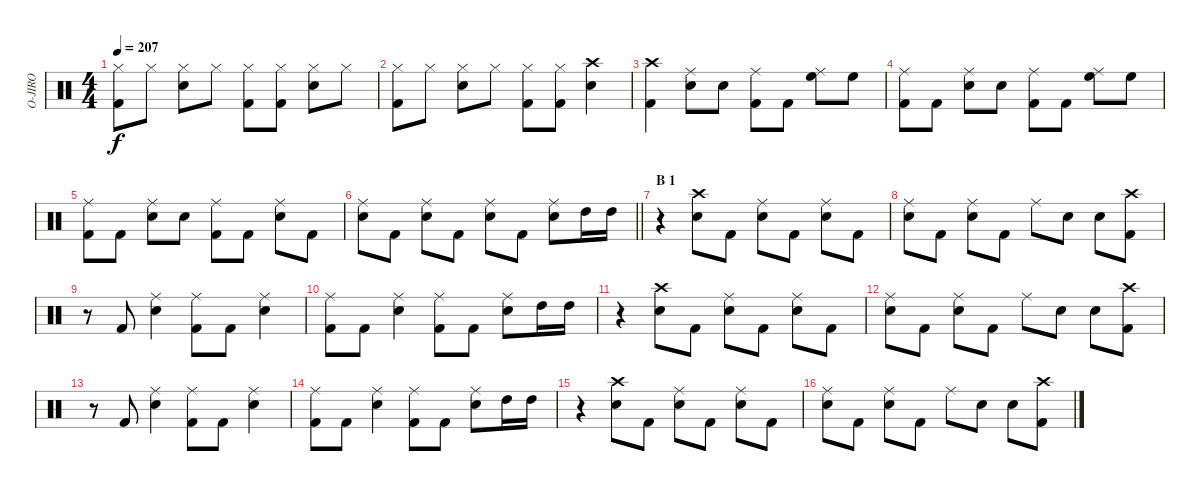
\track ("O-JIRO" "O-JIRO") {instrument percussion}
\staff {score}
\articulation defaults
\ts (4 4)
\tempo 207
\clef neutral
\ks c
("Hi-Hat (closed)" "Kick (hit) 2").8{dy f} "Hi-Hat (closed)".8 ("Hi-Hat (closed)" "Snare (hit) 2").8 "Hi-Hat (closed)".8 ("Hi-Hat (closed)" "Kick (hit) 2").8 ("Hi-Hat (closed)" "Kick (hit) 2").8 ("Hi-Hat (closed)" "Snare (hit) 2").8 "Hi-Hat (closed)".8 |
("Hi-Hat (closed)" "Kick (hit) 2").8 "Hi-Hat (closed)".8 ("Hi-Hat (closed)" "Snare (hit) 2").8 "Hi-Hat (closed)".8 ("Hi-Hat (closed)" "Kick (hit) 2").8 ("Hi-Hat (closed)" "Kick (hit) 2").8 ("Crash high (hit)" "Snare (hit) 2").4 |
("Crash high (hit)" "Kick (hit) 2").4 ("Ride (middle)" "Snare (hit) 2").8 "Snare (hit) 2".8 ("Ride (middle)" "Kick (hit) 2").8 "Kick (hit) 2".8 ("Ride (middle)" "High Floor Tom (hit)").8 "High Floor Tom (hit)".8 |
("Kick (hit) 2" "Ride (middle)").8 "Kick (hit) 2".8 ("Ride (middle)" "Snare (hit) 2").8 "Snare (hit) 2".8 ("Ride (middle)" "Kick (hit) 2").8 "Kick (hit) 2".8 ("Ride (middle)" "High Floor Tom (hit)").8 "High Floor Tom (hit)".8 |
("Kick (hit) 2" "Ride (middle)").8 "Kick (hit) 2".8 ("Ride (middle)" "Snare (hit) 2").8 "Snare (hit) 2".8 ("Ride (middle)" "Kick (hit) 2").8 "Kick (hit) 2".8 ("Ride (middle)" "Snare (hit) 2").8 "Kick (hit) 2".8 |
\barLineRight lightlight
("Ride (middle)" "Snare (hit) 2").8 "Kick (hit) 2".8 ("Ride (middle)" "Snare (hit) 2").8 "Kick (hit) 2".8 ("Ride (middle)" "Snare (hit) 2").8 "Kick (hit) 2".8 ("Ride (middle)" "Snare (hit) 2").8 "High Tom (hit)".16 "High Tom (hit)".16 |
\section ("" "B 1")
r.4 ("Crash high (hit)" "Snare (hit) 2").8 "Kick (hit) 2".8 ("Ride (middle)" "Snare (hit) 2").8 "Kick (hit) 2".8 ("Ride (middle)" "Snare (hit) 2").8 "Kick (hit) 2".8 |
("Ride (middle)" "Snare (hit) 2").8 "Kick (hit) 2".8 ("Ride (middle)" "Snare (hit) 2").8 "Kick (hit) 2".8 "Ride (middle)".8 "Snare (hit) 2".8 "Snare (hit) 2".8 ("Crash high (hit)" "Kick (hit) 2").8 |
r.8 "Kick (hit) 2".8 ("Ride (middle)" "Snare (hit) 2").4 ("Ride (middle)" "Kick (hit) 2").8 "Kick (hit) 2".8 ("Ride (middle)" "Snare (hit) 2").4 |
("Ride (middle)" "Kick (hit) 2").8 "Kick (hit) 2".8 ("Ride (middle)" "Snare (hit) 2").4 ("Ride (middle)" "Kick (hit) 2").8 "Kick (hit) 2".8 ("Ride (middle)" "Snare (hit) 2").8 "High Tom (hit)".16 "High Tom (hit)".16 |
r.4 ("Crash high (hit)" "Snare (hit) 2").8 "Kick (hit) 2".8 ("Ride (middle)" "Snare (hit) 2").8 "Kick (hit) 2".8 ("Ride (middle)" "Snare (hit) 2").8 "Kick (hit) 2".8 |
("Ride (middle)" "Snare (hit) 2").8 "Kick (hit) 2".8 ("Ride (middle)" "Snare (hit) 2").8 "Kick (hit) 2".8 "Ride (middle)".8 "Snare (hit) 2".8 "Snare (hit) 2".8 ("Crash high (hit)" "Kick (hit) 2").8 |
r.8 "Kick (hit) 2".8 ("Ride (middle)" "Snare (hit) 2").4 ("Ride (middle)" "Kick (hit) 2").8 "Kick (hit) 2".8 ("Ride (middle)" "Snare (hit) 2").4 |
("Ride (middle)" "Kick (hit) 2").8 "Kick (hit) 2".8 ("Ride (middle)" "Snare (hit) 2").4 ("Ride (middle)" "Kick (hit) 2").8 "Kick (hit) 2".8 ("Ride (middle)" "Snare (hit) 2").8 "High Tom (hit)".16 "High Tom (hit)".16 |
r.4 ("Crash high (hit)" "Snare (hit) 2").8 "Kick (hit) 2".8 ("Ride (middle)" "Snare (hit) 2").8 "Kick (hit) 2".8 ("Ride (middle)" "Snare (hit) 2").8 "Kick (hit) 2".8 |
("Ride (middle)" "Snare (hit) 2").8 "Kick (hit) 2".8 ("Ride (middle)" "Snare (hit) 2").8 "Kick (hit) 2".8 "Ride (middle)".8 "Snare (hit) 2".8 "Snare (hit) 2".8 ("Crash high (hit)" "Kick (hit) 2").8
